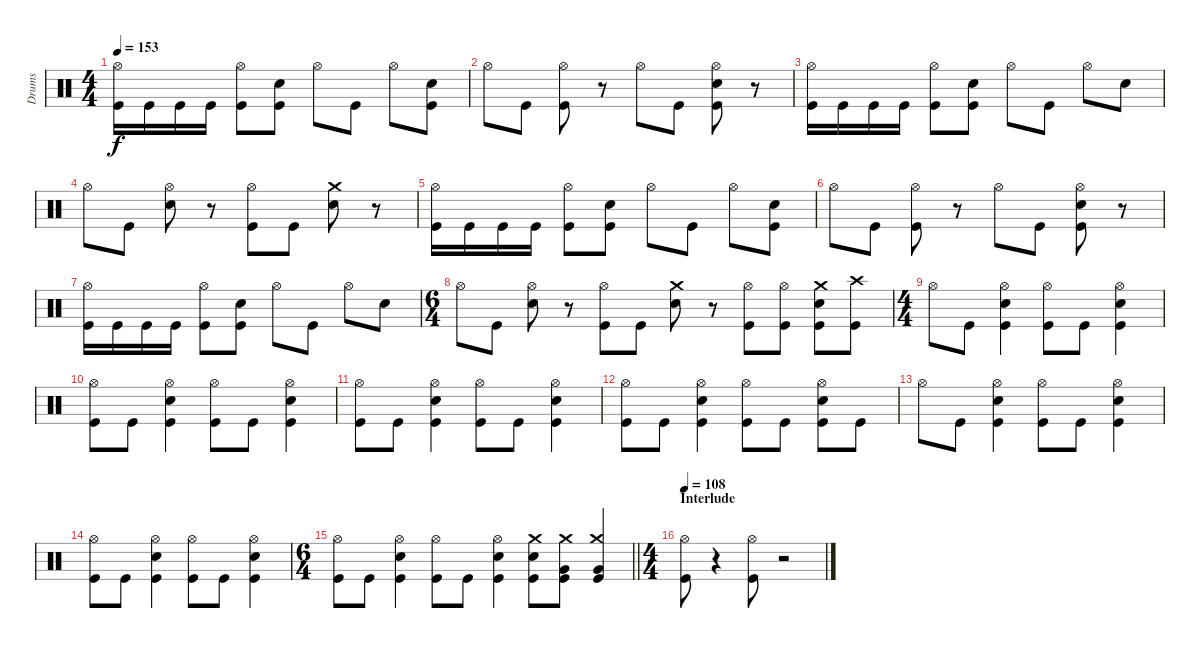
\track ("Drums" "Drums") {instrument percussion}
\staff {score}
\articulation defaults
\ts (4 4)
\tempo 153
\clef neutral
\ks c
("Hi-Hat (open)" "Kick (hit)").16{dy f} "Kick (hit)".16 "Kick (hit)".16 "Kick (hit)".16 ("Hi-Hat (open)" "Kick (hit)").8 ("Electric Snare (hit)" "Kick (hit)").8 "Hi-Hat (open)".8 "Kick (hit)".8 "Hi-Hat (open)".8 ("Electric Snare (hit)" "Kick (hit)").8 |
"Hi-Hat (open)".8 "Kick (hit)".8 ("Hi-Hat (open)" "Kick (hit)").8 r.8 "Hi-Hat (open)".8 "Kick (hit)".8 ("Hi-Hat (open)" "Electric Snare (hit)" "Kick (hit)").8 r.8 |
("Hi-Hat (open)" "Kick (hit)").16 "Kick (hit)".16 "Kick (hit)".16 "Kick (hit)".16 ("Hi-Hat (open)" "Kick (hit)").8 ("Electric Snare (hit)" "Kick (hit)").8 "Hi-Hat (open)".8 "Kick (hit)".8 "Hi-Hat (open)".8 "Electric Snare (hit)".8 |
"Hi-Hat (open)".8 "Kick (hit)".8 ("Hi-Hat (open)" "Electric Snare (hit)").8 r.8 ("Hi-Hat (open)" "Kick (hit)").8 "Kick (hit)".8 ("Crash medium (hit)" "Electric Snare (hit)").8 r.8 |
("Hi-Hat (open)" "Kick (hit)").16 "Kick (hit)".16 "Kick (hit)".16 "Kick (hit)".16 ("Hi-Hat (open)" "Kick (hit)").8 ("Electric Snare (hit)" "Kick (hit)").8 "Hi-Hat (open)".8 "Kick (hit)".8 "Hi-Hat (open)".8 ("Electric Snare (hit)" "Kick (hit)").8 |
"Hi-Hat (open)".8 "Kick (hit)".8 ("Hi-Hat (open)" "Kick (hit)").8 r.8 "Hi-Hat (open)".8 "Kick (hit)".8 ("Hi-Hat (open)" "Electric Snare (hit)" "Kick (hit)").8 r.8 |
("Hi-Hat (open)" "Kick (hit)").16 "Kick (hit)".16 "Kick (hit)".16 "Kick (hit)".16 ("Hi-Hat (open)" "Kick (hit)").8 ("Electric Snare (hit)" "Kick (hit)").8 "Hi-Hat (open)".8 "Kick (hit)".8 "Hi-Hat (open)".8 "Electric Snare (hit)".8 |
\ts (6 4)
"Hi-Hat (open)".8 "Kick (hit)".8 ("Hi-Hat (open)" "Electric Snare (hit)").8 r.8 ("Hi-Hat (open)" "Kick (hit)").8 "Kick (hit)".8 ("Crash medium (hit)" "Electric Snare (hit)").8 r.8 ("Hi-Hat (open)" "Kick (hit)").8 ("Hi-Hat (open)" "Kick (hit)").8 ("Crash medium (hit)" "Electric Snare (hit)" "Kick (hit)").8 ("Crash high (hit)" "Kick (hit)").8 |
\ts (4 4)
"Hi-Hat (open)".8 "Kick (hit)".8 ("Hi-Hat (open)" "Electric Snare (hit)" "Kick (hit)").4 ("Hi-Hat (open)" "Kick (hit)").8 "Kick (hit)".8 ("Hi-Hat (open)" "Electric Snare (hit)" "Kick (hit)").4 |
("Hi-Hat (open)" "Kick (hit)").8 "Kick (hit)".8 ("Hi-Hat (open)" "Electric Snare (hit)" "Kick (hit)").4 ("Hi-Hat (open)" "Kick (hit)").8 "Kick (hit)".8 ("Hi-Hat (open)" "Electric Snare (hit)" "Kick (hit)").4 |
("Hi-Hat (open)" "Kick (hit)").8 "Kick (hit)".8 ("Hi-Hat (open)" "Electric Snare (hit)" "Kick (hit)").4 ("Hi-Hat (open)" "Kick (hit)").8 "Kick (hit)".8 ("Hi-Hat (open)" "Electric Snare (hit)" "Kick (hit)").4 |
("Hi-Hat (open)" "Kick (hit)").8 "Kick (hit)".8 ("Hi-Hat (open)" "Electric Snare (hit)" "Kick (hit)").4 ("Hi-Hat (open)" "Kick (hit)").8 "Kick (hit)".8 ("Hi-Hat (open)" "Electric Snare (hit)" "Kick (hit)").8 "Kick (hit)".8 |
"Hi-Hat (open)".8 "Kick (hit)".8 ("Hi-Hat (open)" "Electric Snare (hit)" "Kick (hit)").4 ("Hi-Hat (open)" "Kick (hit)").8 "Kick (hit)".8 ("Hi-Hat (open)" "Electric Snare (hit)" "Kick (hit)").4 |
("Hi-Hat (open)" "Kick (hit)").8 "Kick (hit)".8 ("Hi-Hat (open)" "Electric Snare (hit)" "Kick (hit)").4 ("Hi-Hat (open)" "Kick (hit)").8 "Kick (hit)".8 ("Hi-Hat (open)" "Electric Snare (hit)" "Kick (hit)").4 |
\ts (6 4)
\barLineRight lightlight
("Hi-Hat (open)" "Kick (hit)").8 "Kick (hit)".8 ("Hi-Hat (open)" "Electric Snare (hit)" "Kick (hit)").4 ("Hi-Hat (open)" "Kick (hit)").8 "Kick (hit)".8 ("Hi-Hat (open)" "Electric Snare (hit)" "Kick (hit)").4 ("Crash medium (hit)" "Electric Snare (hit)" "Kick (hit)").8 ("Crash medium (hit)" "Very Low Tom (hit)" "Kick (hit)").8 ("Crash medium (hit)" "Very Low Tom (hit)" "Kick (hit)").4 |
\ts (4 4)
\section ("" "Interlude")
\tempo 108
("Hi-Hat (open)" "Kick (hit)").8 r.4 ("Hi-Hat (open)" "Kick (hit)").8 r.2
